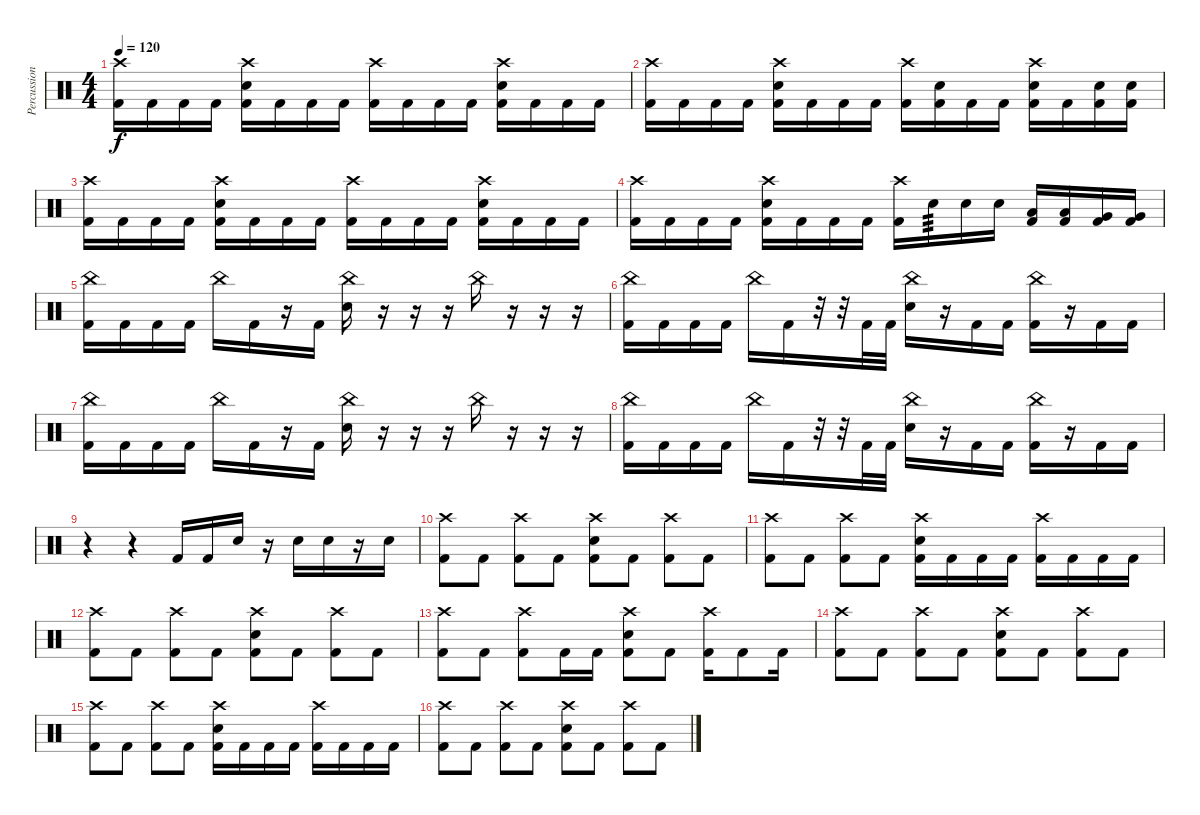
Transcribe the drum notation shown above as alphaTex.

\track ("Percussion" "Percussion") {instrument percussion}
\staff {score}
\articulation defaults
\ts (4 4)
\tempo 120
\clef neutral
\ks c
("Crash high (hit)" "Kick (hit) 2").16{dy f} "Kick (hit) 2".16 "Kick (hit) 2".16 "Kick (hit) 2".16 ("Crash high (hit)" "Snare (hit) 2" "Kick (hit) 2").16 "Kick (hit) 2".16 "Kick (hit) 2".16 "Kick (hit) 2".16 ("Crash high (hit)" "Kick (hit) 2").16 "Kick (hit) 2".16 "Kick (hit) 2".16 "Kick (hit) 2".16 ("Crash high (hit)" "Snare (hit) 2" "Kick (hit) 2").16 "Kick (hit) 2".16 "Kick (hit) 2".16 "Kick (hit) 2".16 |
("Crash high (hit)" "Kick (hit) 2").16 "Kick (hit) 2".16 "Kick (hit) 2".16 "Kick (hit) 2".16 ("Crash high (hit)" "Snare (hit) 2" "Kick (hit) 2").16 "Kick (hit) 2".16 "Kick (hit) 2".16 "Kick (hit) 2".16 ("Crash high (hit)" "Kick (hit) 2").16 ("Snare (hit) 2" "Kick (hit) 2").16 "Kick (hit) 2".16 "Kick (hit) 2".16 ("Crash high (hit)" "Snare (hit) 2" "Kick (hit) 2").16 "Kick (hit) 2".16 ("Snare (hit) 2" "Kick (hit) 2").16 ("Snare (hit) 2" "Kick (hit) 2").16 |
("Crash high (hit)" "Kick (hit) 2").16 "Kick (hit) 2".16 "Kick (hit) 2".16 "Kick (hit) 2".16 ("Crash high (hit)" "Snare (hit) 2" "Kick (hit) 2").16 "Kick (hit) 2".16 "Kick (hit) 2".16 "Kick (hit) 2".16 ("Crash high (hit)" "Kick (hit) 2").16 "Kick (hit) 2".16 "Kick (hit) 2".16 "Kick (hit) 2".16 ("Crash high (hit)" "Snare (hit) 2" "Kick (hit) 2").16 "Kick (hit) 2".16 "Kick (hit) 2".16 "Kick (hit) 2".16 |
("Crash high (hit)" "Kick (hit) 2").16 "Kick (hit) 2".16 "Kick (hit) 2".16 "Kick (hit) 2".16 ("Crash high (hit)" "Snare (hit) 2" "Kick (hit) 2").16 "Kick (hit) 2".16 "Kick (hit) 2".16 "Kick (hit) 2".16 ("Crash high (hit)" "Kick (hit) 2").16 "Snare (hit) 2".16{tp 3} "Snare (hit) 2".16 "Snare (hit) 2".16 ("Low Tom (hit)" "Kick (hit) 2").16 ("Low Tom (hit)" "Kick (hit) 2").16 ("Very Low Tom (hit)" "Kick (hit) 2").16 ("Very Low Tom (hit)" "Kick (hit) 2").16 |
("China (hit)" "Kick (hit) 2").16 "Kick (hit) 2".16 "Kick (hit) 2".16 "Kick (hit) 2".16 "China (hit)".16 "Kick (hit) 2".16 r.16 "Kick (hit) 2".16 ("China (hit)" "Snare (hit) 2").16 r.16 r.16 r.16 "China (hit)".16 r.16 r.16 r.16 |
("China (hit)" "Kick (hit) 2").16 "Kick (hit) 2".16 "Kick (hit) 2".16 "Kick (hit) 2".16 "China (hit)".16 "Kick (hit) 2".16 r.32 r.32 "Kick (hit) 2".32 "Kick (hit) 2".32 ("China (hit)" "Snare (hit) 2").16 r.16 "Kick (hit) 2".16 "Kick (hit) 2".16 ("China (hit)" "Kick (hit) 2").16 r.16 "Kick (hit) 2".16 "Kick (hit) 2".16 |
("China (hit)" "Kick (hit) 2").16 "Kick (hit) 2".16 "Kick (hit) 2".16 "Kick (hit) 2".16 "China (hit)".16 "Kick (hit) 2".16 r.16 "Kick (hit) 2".16 ("China (hit)" "Snare (hit) 2").16 r.16 r.16 r.16 "China (hit)".16 r.16 r.16 r.16 |
("China (hit)" "Kick (hit) 2").16 "Kick (hit) 2".16 "Kick (hit) 2".16 "Kick (hit) 2".16 "China (hit)".16 "Kick (hit) 2".16 r.32 r.32 "Kick (hit) 2".32 "Kick (hit) 2".32 ("China (hit)" "Snare (hit) 2").16 r.16 "Kick (hit) 2".16 "Kick (hit) 2".16 ("China (hit)" "Kick (hit) 2").16 r.16 "Kick (hit) 2".16 "Kick (hit) 2".16 |
r.4 r.4 "Kick (hit) 2".16 "Kick (hit) 2".16 "Snare (hit) 2".16 r.16 "Snare (hit) 2".16 "Snare (hit) 2".16 r.16 "Snare (hit) 2".16 |
("Crash high (hit)" "Kick (hit) 2").8 "Kick (hit) 2".8 ("Crash high (hit)" "Kick (hit) 2").8 "Kick (hit) 2".8 ("Crash high (hit)" "Snare (hit) 2" "Kick (hit) 2").8 "Kick (hit) 2".8 ("Crash high (hit)" "Kick (hit) 2").8 "Kick (hit) 2".8 |
("Crash high (hit)" "Kick (hit) 2").8 "Kick (hit) 2".8 ("Crash high (hit)" "Kick (hit) 2").8 "Kick (hit) 2".8 ("Crash high (hit)" "Snare (hit) 2" "Kick (hit) 2").16 "Kick (hit) 2".16 "Kick (hit) 2".16 "Kick (hit) 2".16 ("Crash high (hit)" "Kick (hit) 2").16 "Kick (hit) 2".16 "Kick (hit) 2".16 "Kick (hit) 2".16 |
("Crash high (hit)" "Kick (hit) 2").8 "Kick (hit) 2".8 ("Crash high (hit)" "Kick (hit) 2").8 "Kick (hit) 2".8 ("Crash high (hit)" "Snare (hit) 2" "Kick (hit) 2").8 "Kick (hit) 2".8 ("Crash high (hit)" "Kick (hit) 2").8 "Kick (hit) 2".8 |
("Crash high (hit)" "Kick (hit) 2").8 "Kick (hit) 2".8 ("Crash high (hit)" "Kick (hit) 2").8 "Kick (hit) 2".16 "Kick (hit) 2".16 ("Crash high (hit)" "Snare (hit) 2" "Kick (hit) 2").8 "Kick (hit) 2".8 ("Crash high (hit)" "Kick (hit) 2").16 "Kick (hit) 2".8 "Kick (hit) 2".16 |
("Crash high (hit)" "Kick (hit) 2").8 "Kick (hit) 2".8 ("Crash high (hit)" "Kick (hit) 2").8 "Kick (hit) 2".8 ("Crash high (hit)" "Snare (hit) 2" "Kick (hit) 2").8 "Kick (hit) 2".8 ("Crash high (hit)" "Kick (hit) 2").8 "Kick (hit) 2".8 |
("Crash high (hit)" "Kick (hit) 2").8 "Kick (hit) 2".8 ("Crash high (hit)" "Kick (hit) 2").8 "Kick (hit) 2".8 ("Crash high (hit)" "Snare (hit) 2" "Kick (hit) 2").16 "Kick (hit) 2".16 "Kick (hit) 2".16 "Kick (hit) 2".16 ("Crash high (hit)" "Kick (hit) 2").16 "Kick (hit) 2".16 "Kick (hit) 2".16 "Kick (hit) 2".16 |
("Crash high (hit)" "Kick (hit) 2").8 "Kick (hit) 2".8 ("Crash high (hit)" "Kick (hit) 2").8 "Kick (hit) 2".8 ("Crash high (hit)" "Snare (hit) 2" "Kick (hit) 2").8 "Kick (hit) 2".8 ("Crash high (hit)" "Kick (hit) 2").8 "Kick (hit) 2".8
